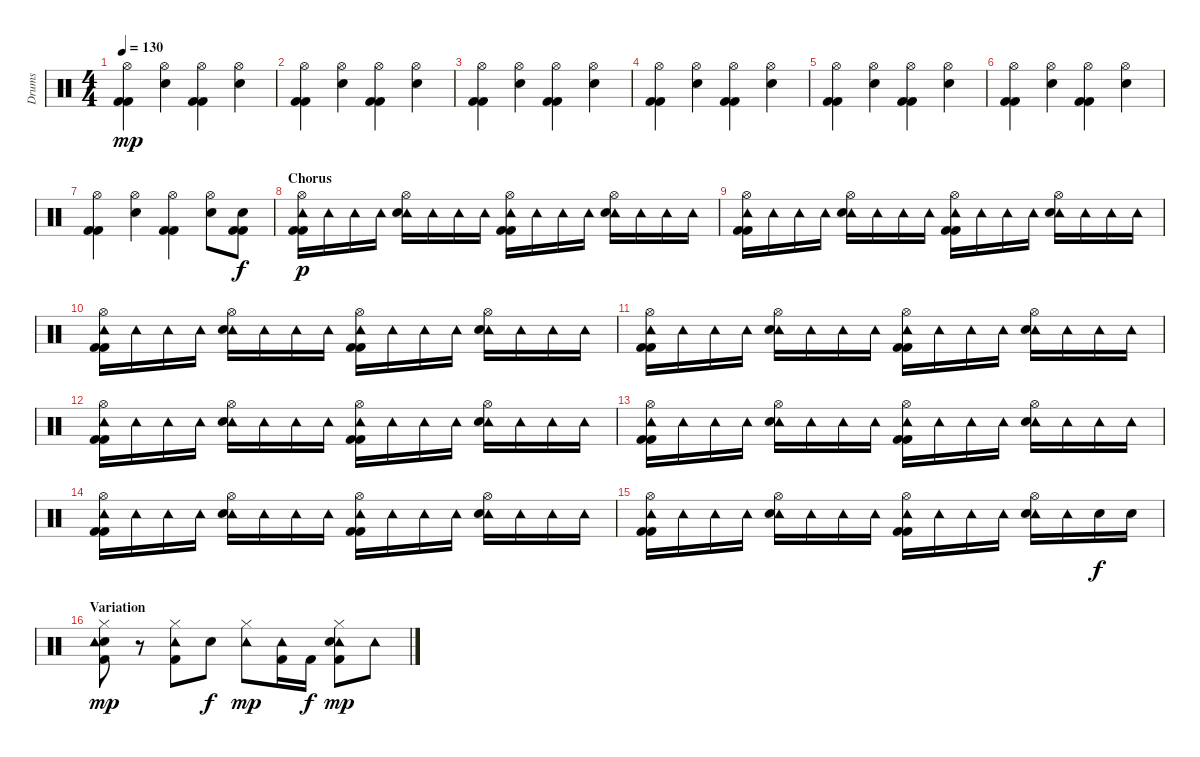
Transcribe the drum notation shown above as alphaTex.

\track ("Drums" "Drums") {instrument percussion}
\staff {score}
\articulation defaults
\ts (4 4)
\tempo 130
\clef neutral
\ks c
("Hi-Hat (open)" "Kick (hit) 2" "Kick (hit) 2").4{dy mp} ("Hi-Hat (open)" "Snare (hit) 2").4 ("Hi-Hat (open)" "Kick (hit) 2" "Kick (hit) 2").4 ("Hi-Hat (open)" "Snare (hit) 2").4 |
("Hi-Hat (open)" "Kick (hit) 2" "Kick (hit) 2").4 ("Hi-Hat (open)" "Snare (hit) 2").4 ("Hi-Hat (open)" "Kick (hit) 2" "Kick (hit) 2").4 ("Hi-Hat (open)" "Snare (hit) 2").4 |
("Hi-Hat (open)" "Kick (hit) 2" "Kick (hit) 2").4 ("Hi-Hat (open)" "Snare (hit) 2").4 ("Hi-Hat (open)" "Kick (hit) 2" "Kick (hit) 2").4 ("Hi-Hat (open)" "Snare (hit) 2").4 |
("Hi-Hat (open)" "Kick (hit) 2" "Kick (hit) 2").4 ("Hi-Hat (open)" "Snare (hit) 2").4 ("Hi-Hat (open)" "Kick (hit) 2" "Kick (hit) 2").4 ("Hi-Hat (open)" "Snare (hit) 2").4 |
("Hi-Hat (open)" "Kick (hit) 2" "Kick (hit) 2").4 ("Hi-Hat (open)" "Snare (hit) 2").4 ("Hi-Hat (open)" "Kick (hit) 2" "Kick (hit) 2").4 ("Hi-Hat (open)" "Snare (hit) 2").4 |
("Hi-Hat (open)" "Kick (hit) 2" "Kick (hit) 2").4 ("Hi-Hat (open)" "Snare (hit) 2").4 ("Hi-Hat (open)" "Kick (hit) 2" "Kick (hit) 2").4 ("Hi-Hat (open)" "Snare (hit) 2").4 |
("Hi-Hat (open)" "Kick (hit) 2" "Kick (hit) 2").4 ("Hi-Hat (open)" "Snare (hit) 2").4 ("Hi-Hat (open)" "Kick (hit) 2" "Kick (hit) 2").4 ("Hi-Hat (open)" "Snare (hit) 2").8 ("Snare (hit) 2" "Kick (hit) 2" "Kick (hit) 2").8{dy f} |
\section ("" "Chorus")
("Hi-Hat (open)" "Tambourine (hit)" "Kick (hit) 2" "Kick (hit) 2").16{dy p} "Tambourine (hit)".16 "Tambourine (hit)".16 "Tambourine (hit)".16 ("Hi-Hat (open)" "Tambourine (hit)" "Snare (hit) 2").16 "Tambourine (hit)".16 "Tambourine (hit)".16 "Tambourine (hit)".16 ("Hi-Hat (open)" "Tambourine (hit)" "Kick (hit) 2" "Kick (hit) 2").16 "Tambourine (hit)".16 "Tambourine (hit)".16 "Tambourine (hit)".16 ("Hi-Hat (open)" "Tambourine (hit)" "Snare (hit) 2").16 "Tambourine (hit)".16 "Tambourine (hit)".16 "Tambourine (hit)".16 |
("Hi-Hat (open)" "Tambourine (hit)" "Kick (hit) 2" "Kick (hit) 2").16 "Tambourine (hit)".16 "Tambourine (hit)".16 "Tambourine (hit)".16 ("Hi-Hat (open)" "Tambourine (hit)" "Snare (hit) 2").16 "Tambourine (hit)".16 "Tambourine (hit)".16 "Tambourine (hit)".16 ("Hi-Hat (open)" "Tambourine (hit)" "Kick (hit) 2" "Kick (hit) 2").16 "Tambourine (hit)".16 "Tambourine (hit)".16 "Tambourine (hit)".16 ("Hi-Hat (open)" "Tambourine (hit)" "Snare (hit) 2").16 "Tambourine (hit)".16 "Tambourine (hit)".16 "Tambourine (hit)".16 |
("Hi-Hat (open)" "Tambourine (hit)" "Kick (hit) 2" "Kick (hit) 2").16 "Tambourine (hit)".16 "Tambourine (hit)".16 "Tambourine (hit)".16 ("Hi-Hat (open)" "Tambourine (hit)" "Snare (hit) 2").16 "Tambourine (hit)".16 "Tambourine (hit)".16 "Tambourine (hit)".16 ("Hi-Hat (open)" "Tambourine (hit)" "Kick (hit) 2" "Kick (hit) 2").16 "Tambourine (hit)".16 "Tambourine (hit)".16 "Tambourine (hit)".16 ("Hi-Hat (open)" "Tambourine (hit)" "Snare (hit) 2").16 "Tambourine (hit)".16 "Tambourine (hit)".16 "Tambourine (hit)".16 |
("Hi-Hat (open)" "Tambourine (hit)" "Kick (hit) 2" "Kick (hit) 2").16 "Tambourine (hit)".16 "Tambourine (hit)".16 "Tambourine (hit)".16 ("Hi-Hat (open)" "Tambourine (hit)" "Snare (hit) 2").16 "Tambourine (hit)".16 "Tambourine (hit)".16 "Tambourine (hit)".16 ("Hi-Hat (open)" "Tambourine (hit)" "Kick (hit) 2" "Kick (hit) 2").16 "Tambourine (hit)".16 "Tambourine (hit)".16 "Tambourine (hit)".16 ("Hi-Hat (open)" "Tambourine (hit)" "Snare (hit) 2").16 "Tambourine (hit)".16 "Tambourine (hit)".16 "Tambourine (hit)".16 |
("Hi-Hat (open)" "Tambourine (hit)" "Kick (hit) 2" "Kick (hit) 2").16 "Tambourine (hit)".16 "Tambourine (hit)".16 "Tambourine (hit)".16 ("Hi-Hat (open)" "Tambourine (hit)" "Snare (hit) 2").16 "Tambourine (hit)".16 "Tambourine (hit)".16 "Tambourine (hit)".16 ("Hi-Hat (open)" "Tambourine (hit)" "Kick (hit) 2" "Kick (hit) 2").16 "Tambourine (hit)".16 "Tambourine (hit)".16 "Tambourine (hit)".16 ("Hi-Hat (open)" "Tambourine (hit)" "Snare (hit) 2").16 "Tambourine (hit)".16 "Tambourine (hit)".16 "Tambourine (hit)".16 |
("Hi-Hat (open)" "Tambourine (hit)" "Kick (hit) 2" "Kick (hit) 2").16 "Tambourine (hit)".16 "Tambourine (hit)".16 "Tambourine (hit)".16 ("Hi-Hat (open)" "Tambourine (hit)" "Snare (hit) 2").16 "Tambourine (hit)".16 "Tambourine (hit)".16 "Tambourine (hit)".16 ("Hi-Hat (open)" "Tambourine (hit)" "Kick (hit) 2" "Kick (hit) 2").16 "Tambourine (hit)".16 "Tambourine (hit)".16 "Tambourine (hit)".16 ("Hi-Hat (open)" "Tambourine (hit)" "Snare (hit) 2").16 "Tambourine (hit)".16 "Tambourine (hit)".16 "Tambourine (hit)".16 |
("Hi-Hat (open)" "Tambourine (hit)" "Kick (hit) 2" "Kick (hit) 2").16 "Tambourine (hit)".16 "Tambourine (hit)".16 "Tambourine (hit)".16 ("Hi-Hat (open)" "Tambourine (hit)" "Snare (hit) 2").16 "Tambourine (hit)".16 "Tambourine (hit)".16 "Tambourine (hit)".16 ("Hi-Hat (open)" "Tambourine (hit)" "Kick (hit) 2" "Kick (hit) 2").16 "Tambourine (hit)".16 "Tambourine (hit)".16 "Tambourine (hit)".16 ("Hi-Hat (open)" "Tambourine (hit)" "Snare (hit) 2").16 "Tambourine (hit)".16 "Tambourine (hit)".16 "Tambourine (hit)".16 |
("Hi-Hat (open)" "Tambourine (hit)" "Kick (hit) 2" "Kick (hit) 2").16 "Tambourine (hit)".16 "Tambourine (hit)".16 "Tambourine (hit)".16 ("Hi-Hat (open)" "Tambourine (hit)" "Snare (hit) 2").16 "Tambourine (hit)".16 "Tambourine (hit)".16 "Tambourine (hit)".16 ("Hi-Hat (open)" "Tambourine (hit)" "Kick (hit) 2" "Kick (hit) 2").16 "Tambourine (hit)".16 "Tambourine (hit)".16 "Tambourine (hit)".16 ("Hi-Hat (open)" "Tambourine (hit)" "Snare (hit) 2").16 "Tambourine (hit)".16 "Snare (hit) 2".16{dy f} "Snare (hit) 2".16 |
\section ("" "Variation")
("Hi-Hat (closed)" "Snare (hit) 2" "Tambourine (hit)" "Kick (hit) 2").8{dy mp} r.8 ("Hi-Hat (closed)" "Tambourine (hit)" "Kick (hit) 2").8 "Snare (hit) 2".8{dy f} ("Hi-Hat (closed)" "Tambourine (hit)").8{dy mp} ("Tambourine (hit)" "Kick (hit) 2").16 "Kick (hit) 2".16{dy f} ("Hi-Hat (closed)" "Tambourine (hit)" "Snare (hit) 2" "Kick (hit) 2").8{dy mp} "Tambourine (hit)".8
